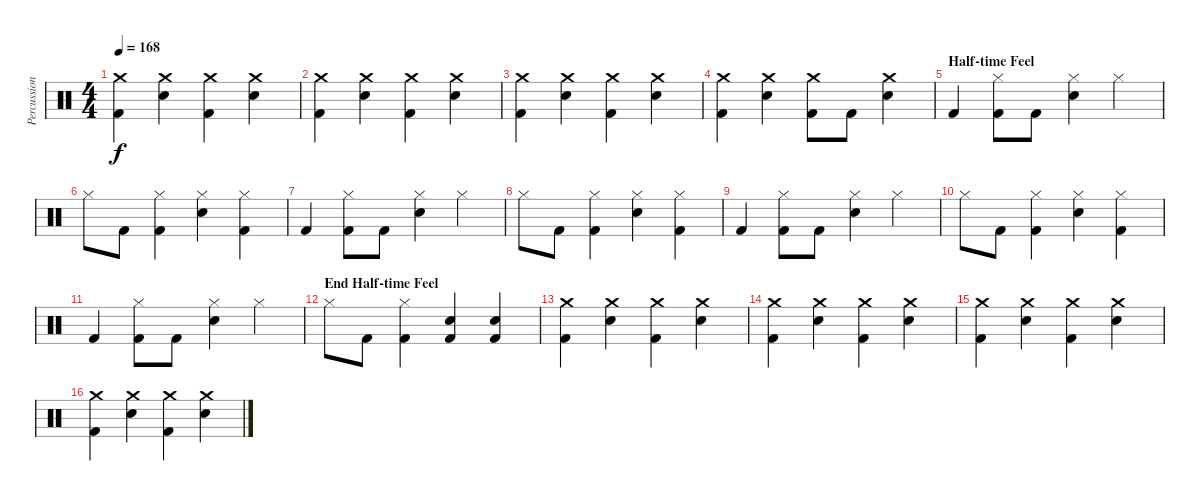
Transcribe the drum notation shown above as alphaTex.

\track ("Percussion" "Percussion") {instrument percussion}
\staff {score}
\articulation defaults
\ts (4 4)
\tempo 168
\clef neutral
\ks c
("Crash medium (hit)" "Kick (hit) 2").4{dy f} ("Crash medium (hit)" "Snare (hit) 2").4 ("Crash medium (hit)" "Kick (hit) 2").4 ("Crash medium (hit)" "Snare (hit) 2").4 |
("Crash medium (hit)" "Kick (hit) 2").4 ("Crash medium (hit)" "Snare (hit) 2").4 ("Crash medium (hit)" "Kick (hit) 2").4 ("Crash medium (hit)" "Snare (hit) 2").4 |
("Crash medium (hit)" "Kick (hit) 2").4 ("Crash medium (hit)" "Snare (hit) 2").4 ("Crash medium (hit)" "Kick (hit) 2").4 ("Crash medium (hit)" "Snare (hit) 2").4 |
("Crash medium (hit)" "Kick (hit) 2").4 ("Crash medium (hit)" "Snare (hit) 2").4 ("Crash medium (hit)" "Kick (hit) 2").8 "Kick (hit) 2".8 ("Crash medium (hit)" "Snare (hit) 2").4 |
\section ("" "Half-time Feel")
"Kick (hit) 2".4 ("Hi-Hat (closed)" "Kick (hit) 2").8 "Kick (hit) 2".8 ("Hi-Hat (closed)" "Snare (hit) 2").4 "Hi-Hat (closed)".4 |
"Hi-Hat (closed)".8 "Kick (hit) 2".8 ("Hi-Hat (closed)" "Kick (hit) 2").4 ("Hi-Hat (closed)" "Snare (hit) 2").4 ("Hi-Hat (closed)" "Kick (hit) 2").4 |
"Kick (hit) 2".4 ("Hi-Hat (closed)" "Kick (hit) 2").8 "Kick (hit) 2".8 ("Hi-Hat (closed)" "Snare (hit) 2").4 "Hi-Hat (closed)".4 |
"Hi-Hat (closed)".8 "Kick (hit) 2".8 ("Hi-Hat (closed)" "Kick (hit) 2").4 ("Hi-Hat (closed)" "Snare (hit) 2").4 ("Hi-Hat (closed)" "Kick (hit) 2").4 |
"Kick (hit) 2".4 ("Hi-Hat (closed)" "Kick (hit) 2").8 "Kick (hit) 2".8 ("Hi-Hat (closed)" "Snare (hit) 2").4 "Hi-Hat (closed)".4 |
"Hi-Hat (closed)".8 "Kick (hit) 2".8 ("Hi-Hat (closed)" "Kick (hit) 2").4 ("Hi-Hat (closed)" "Snare (hit) 2").4 ("Hi-Hat (closed)" "Kick (hit) 2").4 |
"Kick (hit) 2".4 ("Hi-Hat (closed)" "Kick (hit) 2").8 "Kick (hit) 2".8 ("Hi-Hat (closed)" "Snare (hit) 2").4 "Hi-Hat (closed)".4 |
\section ("" "End Half-time Feel")
"Hi-Hat (closed)".8 "Kick (hit) 2".8 ("Hi-Hat (closed)" "Kick (hit) 2").4 ("Snare (hit) 2" "Kick (hit) 2").4 ("Snare (hit) 2" "Kick (hit) 2").4 |
("Crash medium (hit)" "Kick (hit) 2").4 ("Crash medium (hit)" "Snare (hit) 2").4 ("Crash medium (hit)" "Kick (hit) 2").4 ("Crash medium (hit)" "Snare (hit) 2").4 |
("Crash medium (hit)" "Kick (hit) 2").4 ("Crash medium (hit)" "Snare (hit) 2").4 ("Crash medium (hit)" "Kick (hit) 2").4 ("Crash medium (hit)" "Snare (hit) 2").4 |
("Crash medium (hit)" "Kick (hit) 2").4 ("Crash medium (hit)" "Snare (hit) 2").4 ("Crash medium (hit)" "Kick (hit) 2").4 ("Crash medium (hit)" "Snare (hit) 2").4 |
("Crash medium (hit)" "Kick (hit) 2").4 ("Crash medium (hit)" "Snare (hit) 2").4 ("Crash medium (hit)" "Kick (hit) 2").4 ("Crash medium (hit)" "Snare (hit) 2").4
